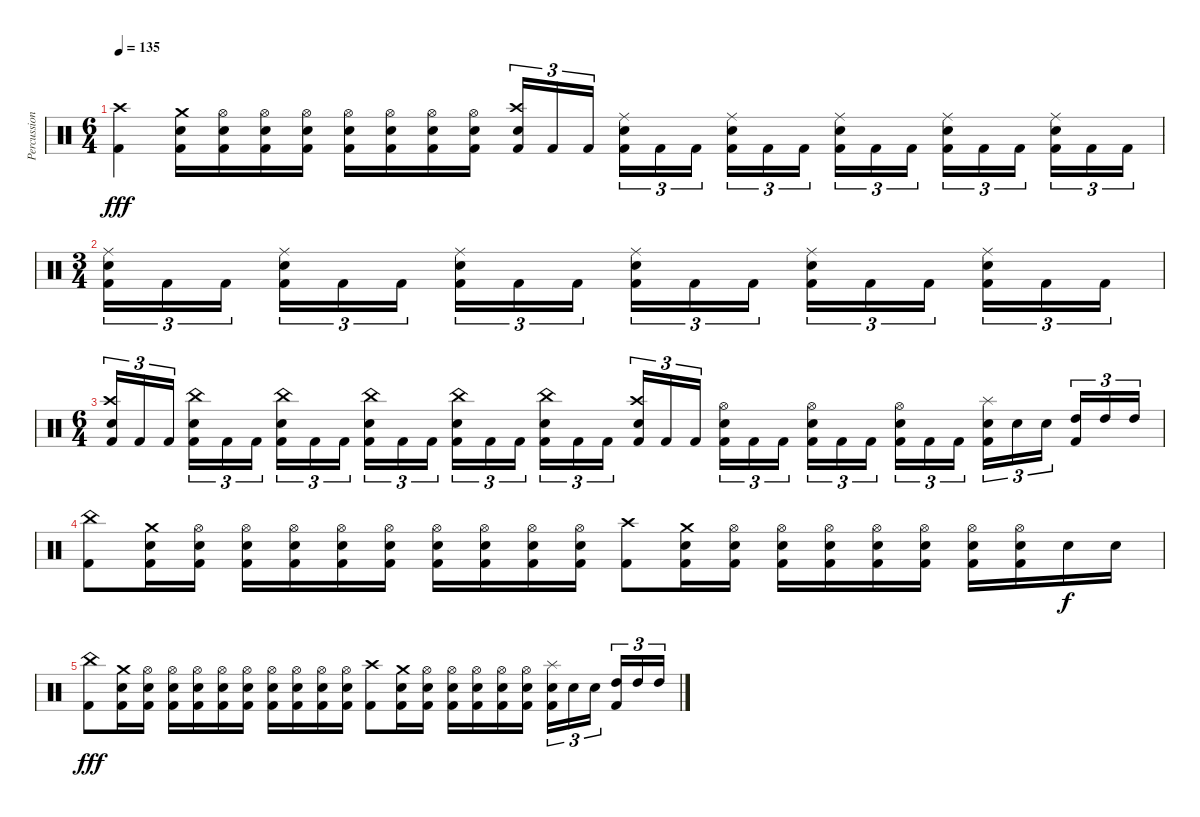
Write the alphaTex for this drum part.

\track ("Percussion" "Percussion") {instrument percussion}
\staff {score}
\articulation defaults
\ts (6 4)
\tempo 135
\clef neutral
\ks c
("Kick (hit) 2" "Crash high (hit)").4{dy fff} ("Crash medium (hit)" "Kick (hit) 2" "Electric Snare (hit)").16 ("Hi-Hat (open)" "Kick (hit) 2" "Electric Snare (hit)").16 ("Hi-Hat (open)" "Kick (hit) 2" "Electric Snare (hit)").16 ("Hi-Hat (open)" "Kick (hit) 2" "Electric Snare (hit)").16 ("Hi-Hat (open)" "Kick (hit) 2" "Electric Snare (hit)").16 ("Hi-Hat (open)" "Kick (hit) 2" "Electric Snare (hit)").16 ("Hi-Hat (open)" "Kick (hit) 2" "Electric Snare (hit)").16 ("Hi-Hat (open)" "Kick (hit) 2" "Electric Snare (hit)").16 ("Crash high (hit)" "Electric Snare (hit)" "Kick (hit) 2").16{tu (3 2)} "Kick (hit) 2".16{tu (3 2)} "Kick (hit) 2".16{tu (3 2) beam splitsecondary} ("Ride (middle)" "Electric Snare (hit)" "Kick (hit) 2").16{tu (3 2)} "Kick (hit) 2".16{tu (3 2)} "Kick (hit) 2".16{tu (3 2) beam splitsecondary} ("Ride (middle)" "Electric Snare (hit)" "Kick (hit) 2").16{tu (3 2)} "Kick (hit) 2".16{tu (3 2)} "Kick (hit) 2".16{tu (3 2) beam splitsecondary} ("Ride (middle)" "Electric Snare (hit)" "Kick (hit) 2").16{tu (3 2)} "Kick (hit) 2".16{tu (3 2)} "Kick (hit) 2".16{tu (3 2) beam splitsecondary} ("Ride (middle)" "Electric Snare (hit)" "Kick (hit) 2").16{tu (3 2)} "Kick (hit) 2".16{tu (3 2)} "Kick (hit) 2".16{tu (3 2) beam splitsecondary} ("Ride (middle)" "Electric Snare (hit)" "Kick (hit) 2").16{tu (3 2)} "Kick (hit) 2".16{tu (3 2)} "Kick (hit) 2".16{tu (3 2)} |
\ts (3 4)
("Ride (middle)" "Electric Snare (hit)" "Kick (hit) 2").16{tu (3 2)} "Kick (hit) 2".16{tu (3 2)} "Kick (hit) 2".16{tu (3 2) beam splitsecondary} ("Ride (middle)" "Electric Snare (hit)" "Kick (hit) 2").16{tu (3 2)} "Kick (hit) 2".16{tu (3 2)} "Kick (hit) 2".16{tu (3 2)} ("Ride (middle)" "Electric Snare (hit)" "Kick (hit) 2").16{tu (3 2)} "Kick (hit) 2".16{tu (3 2)} "Kick (hit) 2".16{tu (3 2) beam splitsecondary} ("Ride (middle)" "Electric Snare (hit)" "Kick (hit) 2").16{tu (3 2)} "Kick (hit) 2".16{tu (3 2)} "Kick (hit) 2".16{tu (3 2)} ("Ride (middle)" "Electric Snare (hit)" "Kick (hit) 2").16{tu (3 2)} "Kick (hit) 2".16{tu (3 2)} "Kick (hit) 2".16{tu (3 2) beam splitsecondary} ("Ride (middle)" "Electric Snare (hit)" "Kick (hit) 2").16{tu (3 2)} "Kick (hit) 2".16{tu (3 2)} "Kick (hit) 2".16{tu (3 2)} |
\ts (6 4)
("Crash high (hit)" "Electric Snare (hit)" "Kick (hit) 2").16{tu (3 2)} "Kick (hit) 2".16{tu (3 2)} "Kick (hit) 2".16{tu (3 2) beam splitsecondary} ("China (hit)" "Electric Snare (hit)" "Kick (hit) 2").16{tu (3 2)} "Kick (hit) 2".16{tu (3 2)} "Kick (hit) 2".16{tu (3 2) beam splitsecondary} ("China (hit)" "Electric Snare (hit)" "Kick (hit) 2").16{tu (3 2)} "Kick (hit) 2".16{tu (3 2)} "Kick (hit) 2".16{tu (3 2) beam splitsecondary} ("China (hit)" "Electric Snare (hit)" "Kick (hit) 2").16{tu (3 2)} "Kick (hit) 2".16{tu (3 2)} "Kick (hit) 2".16{tu (3 2) beam splitsecondary} ("China (hit)" "Electric Snare (hit)" "Kick (hit) 2").16{tu (3 2)} "Kick (hit) 2".16{tu (3 2)} "Kick (hit) 2".16{tu (3 2) beam splitsecondary} ("China (hit)" "Electric Snare (hit)" "Kick (hit) 2").16{tu (3 2)} "Kick (hit) 2".16{tu (3 2)} "Kick (hit) 2".16{tu (3 2)} ("Crash high (hit)" "Electric Snare (hit)" "Kick (hit) 2").16{tu (3 2)} "Kick (hit) 2".16{tu (3 2)} "Kick (hit) 2".16{tu (3 2) beam splitsecondary} ("Hi-Hat (open)" "Electric Snare (hit)" "Kick (hit) 2").16{tu (3 2)} "Kick (hit) 2".16{tu (3 2)} "Kick (hit) 2".16{tu (3 2) beam splitsecondary} ("Hi-Hat (open)" "Electric Snare (hit)" "Kick (hit) 2").16{tu (3 2)} "Kick (hit) 2".16{tu (3 2)} "Kick (hit) 2".16{tu (3 2) beam splitsecondary} ("Hi-Hat (open)" "Electric Snare (hit)" "Kick (hit) 2").16{tu (3 2)} "Kick (hit) 2".16{tu (3 2)} "Kick (hit) 2".16{tu (3 2) beam splitsecondary} ("Splash (hit)" "Electric Snare (hit)" "Kick (hit) 2").16{tu (3 2)} "Electric Snare (hit)".16{tu (3 2)} "Electric Snare (hit)".16{tu (3 2) beam splitsecondary} ("High Tom (hit)" "Kick (hit) 2").16{tu (3 2)} "High Tom (hit)".16{tu (3 2)} "High Tom (hit)".16{tu (3 2)} |
("Kick (hit) 2" "China (hit)").8 ("Crash medium (hit)" "Kick (hit) 2" "Electric Snare (hit)").16 ("Hi-Hat (open)" "Kick (hit) 2" "Electric Snare (hit)").16 ("Hi-Hat (open)" "Kick (hit) 2" "Electric Snare (hit)").16 ("Hi-Hat (open)" "Kick (hit) 2" "Electric Snare (hit)").16 ("Hi-Hat (open)" "Kick (hit) 2" "Electric Snare (hit)").16 ("Hi-Hat (open)" "Kick (hit) 2" "Electric Snare (hit)").16 ("Hi-Hat (open)" "Kick (hit) 2" "Electric Snare (hit)").16 ("Hi-Hat (open)" "Kick (hit) 2" "Electric Snare (hit)").16 ("Hi-Hat (open)" "Kick (hit) 2" "Electric Snare (hit)").16 ("Hi-Hat (open)" "Kick (hit) 2" "Electric Snare (hit)").16 ("Kick (hit) 2" "Crash high (hit)").8 ("Crash medium (hit)" "Kick (hit) 2" "Electric Snare (hit)").16 ("Hi-Hat (open)" "Kick (hit) 2" "Electric Snare (hit)").16 ("Hi-Hat (open)" "Kick (hit) 2" "Electric Snare (hit)").16 ("Hi-Hat (open)" "Kick (hit) 2" "Electric Snare (hit)").16 ("Hi-Hat (open)" "Kick (hit) 2" "Electric Snare (hit)").16 ("Hi-Hat (open)" "Kick (hit) 2" "Electric Snare (hit)").16 ("Hi-Hat (open)" "Kick (hit) 2" "Electric Snare (hit)").16 ("Hi-Hat (open)" "Kick (hit) 2" "Electric Snare (hit)").16 "Electric Snare (hit)".16{dy f} "Electric Snare (hit)".16 |
("Kick (hit) 2" "China (hit)").8{dy fff} ("Crash medium (hit)" "Kick (hit) 2" "Electric Snare (hit)").16 ("Hi-Hat (open)" "Kick (hit) 2" "Electric Snare (hit)").16 ("Hi-Hat (open)" "Kick (hit) 2" "Electric Snare (hit)").16 ("Hi-Hat (open)" "Kick (hit) 2" "Electric Snare (hit)").16 ("Hi-Hat (open)" "Kick (hit) 2" "Electric Snare (hit)").16 ("Hi-Hat (open)" "Kick (hit) 2" "Electric Snare (hit)").16 ("Hi-Hat (open)" "Kick (hit) 2" "Electric Snare (hit)").16 ("Hi-Hat (open)" "Kick (hit) 2" "Electric Snare (hit)").16 ("Hi-Hat (open)" "Kick (hit) 2" "Electric Snare (hit)").16 ("Hi-Hat (open)" "Kick (hit) 2" "Electric Snare (hit)").16 ("Kick (hit) 2" "Crash high (hit)").8 ("Crash medium (hit)" "Kick (hit) 2" "Electric Snare (hit)").16 ("Hi-Hat (open)" "Kick (hit) 2" "Electric Snare (hit)").16 ("Hi-Hat (open)" "Kick (hit) 2" "Electric Snare (hit)").16 ("Hi-Hat (open)" "Kick (hit) 2" "Electric Snare (hit)").16 ("Hi-Hat (open)" "Kick (hit) 2" "Electric Snare (hit)").16 ("Hi-Hat (open)" "Kick (hit) 2" "Electric Snare (hit)").16{beam splitsecondary} ("Splash (hit)" "Electric Snare (hit)" "Kick (hit) 2").16{tu (3 2)} "Electric Snare (hit)".16{tu (3 2)} "Electric Snare (hit)".16{tu (3 2) beam splitsecondary} ("High Tom (hit)" "Kick (hit) 2").16{tu (3 2)} "High Tom (hit)".16{tu (3 2)} "High Tom (hit)".16{tu (3 2)}
